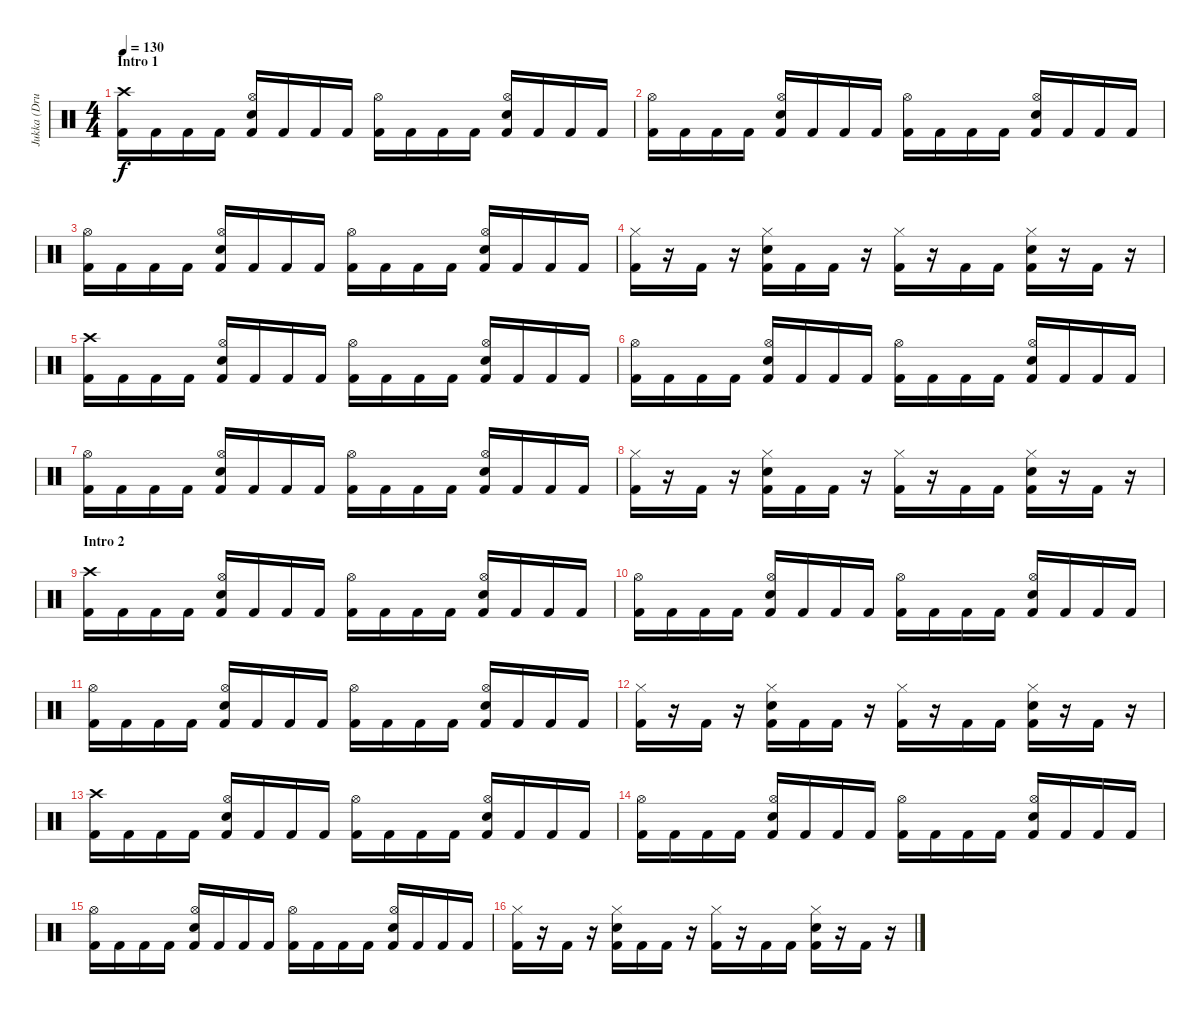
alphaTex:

\track ("Jukka (Drums)" "Jukka (Dru") {instrument percussion}
\staff {score}
\articulation defaults
\ts (4 4)
\section ("" "Intro 1")
\tempo 130
\clef neutral
\ks c
("Crash high (hit)" "Kick (hit) 2").16{dy f} "Kick (hit) 2".16 "Kick (hit) 2".16 "Kick (hit) 2".16 ("Hi-Hat (open)" "Electric Snare (hit)" "Kick (hit) 2").16 "Kick (hit) 2".16 "Kick (hit) 2".16 "Kick (hit) 2".16 ("Hi-Hat (open)" "Kick (hit) 2").16 "Kick (hit) 2".16 "Kick (hit) 2".16 "Kick (hit) 2".16 ("Hi-Hat (open)" "Electric Snare (hit)" "Kick (hit) 2").16 "Kick (hit) 2".16 "Kick (hit) 2".16 "Kick (hit) 2".16 |
("Hi-Hat (open)" "Kick (hit) 2").16 "Kick (hit) 2".16 "Kick (hit) 2".16 "Kick (hit) 2".16 ("Hi-Hat (open)" "Electric Snare (hit)" "Kick (hit) 2").16 "Kick (hit) 2".16 "Kick (hit) 2".16 "Kick (hit) 2".16 ("Hi-Hat (open)" "Kick (hit) 2").16 "Kick (hit) 2".16 "Kick (hit) 2".16 "Kick (hit) 2".16 ("Hi-Hat (open)" "Electric Snare (hit)" "Kick (hit) 2").16 "Kick (hit) 2".16 "Kick (hit) 2".16 "Kick (hit) 2".16 |
("Hi-Hat (open)" "Kick (hit) 2").16 "Kick (hit) 2".16 "Kick (hit) 2".16 "Kick (hit) 2".16 ("Hi-Hat (open)" "Electric Snare (hit)" "Kick (hit) 2").16 "Kick (hit) 2".16 "Kick (hit) 2".16 "Kick (hit) 2".16 ("Hi-Hat (open)" "Kick (hit) 2").16 "Kick (hit) 2".16 "Kick (hit) 2".16 "Kick (hit) 2".16 ("Hi-Hat (open)" "Electric Snare (hit)" "Kick (hit) 2").16 "Kick (hit) 2".16 "Kick (hit) 2".16 "Kick (hit) 2".16 |
("Hi-Hat (closed)" "Kick (hit) 2").16 r.16 "Kick (hit) 2".16 r.16 ("Hi-Hat (closed)" "Electric Snare (hit)" "Kick (hit) 2").16 "Kick (hit) 2".16 "Kick (hit) 2".16 r.16 ("Hi-Hat (closed)" "Kick (hit) 2").16 r.16 "Kick (hit) 2".16 "Kick (hit) 2".16 ("Hi-Hat (closed)" "Electric Snare (hit)" "Kick (hit) 2").16 r.16 "Kick (hit) 2".16 r.16 |
("Crash high (hit)" "Kick (hit) 2").16 "Kick (hit) 2".16 "Kick (hit) 2".16 "Kick (hit) 2".16 ("Hi-Hat (open)" "Electric Snare (hit)" "Kick (hit) 2").16 "Kick (hit) 2".16 "Kick (hit) 2".16 "Kick (hit) 2".16 ("Hi-Hat (open)" "Kick (hit) 2").16 "Kick (hit) 2".16 "Kick (hit) 2".16 "Kick (hit) 2".16 ("Hi-Hat (open)" "Electric Snare (hit)" "Kick (hit) 2").16 "Kick (hit) 2".16 "Kick (hit) 2".16 "Kick (hit) 2".16 |
("Hi-Hat (open)" "Kick (hit) 2").16 "Kick (hit) 2".16 "Kick (hit) 2".16 "Kick (hit) 2".16 ("Hi-Hat (open)" "Electric Snare (hit)" "Kick (hit) 2").16 "Kick (hit) 2".16 "Kick (hit) 2".16 "Kick (hit) 2".16 ("Hi-Hat (open)" "Kick (hit) 2").16 "Kick (hit) 2".16 "Kick (hit) 2".16 "Kick (hit) 2".16 ("Hi-Hat (open)" "Electric Snare (hit)" "Kick (hit) 2").16 "Kick (hit) 2".16 "Kick (hit) 2".16 "Kick (hit) 2".16 |
("Hi-Hat (open)" "Kick (hit) 2").16 "Kick (hit) 2".16 "Kick (hit) 2".16 "Kick (hit) 2".16 ("Hi-Hat (open)" "Electric Snare (hit)" "Kick (hit) 2").16 "Kick (hit) 2".16 "Kick (hit) 2".16 "Kick (hit) 2".16 ("Hi-Hat (open)" "Kick (hit) 2").16 "Kick (hit) 2".16 "Kick (hit) 2".16 "Kick (hit) 2".16 ("Hi-Hat (open)" "Electric Snare (hit)" "Kick (hit) 2").16 "Kick (hit) 2".16 "Kick (hit) 2".16 "Kick (hit) 2".16 |
("Hi-Hat (closed)" "Kick (hit) 2").16 r.16 "Kick (hit) 2".16 r.16 ("Hi-Hat (closed)" "Electric Snare (hit)" "Kick (hit) 2").16 "Kick (hit) 2".16 "Kick (hit) 2".16 r.16 ("Hi-Hat (closed)" "Kick (hit) 2").16 r.16 "Kick (hit) 2".16 "Kick (hit) 2".16 ("Hi-Hat (closed)" "Electric Snare (hit)" "Kick (hit) 2").16 r.16 "Kick (hit) 2".16 r.16 |
\section ("" "Intro 2")
("Crash high (hit)" "Kick (hit) 2").16 "Kick (hit) 2".16 "Kick (hit) 2".16 "Kick (hit) 2".16 ("Hi-Hat (open)" "Electric Snare (hit)" "Kick (hit) 2").16 "Kick (hit) 2".16 "Kick (hit) 2".16 "Kick (hit) 2".16 ("Hi-Hat (open)" "Kick (hit) 2").16 "Kick (hit) 2".16 "Kick (hit) 2".16 "Kick (hit) 2".16 ("Hi-Hat (open)" "Electric Snare (hit)" "Kick (hit) 2").16 "Kick (hit) 2".16 "Kick (hit) 2".16 "Kick (hit) 2".16 |
("Hi-Hat (open)" "Kick (hit) 2").16 "Kick (hit) 2".16 "Kick (hit) 2".16 "Kick (hit) 2".16 ("Hi-Hat (open)" "Electric Snare (hit)" "Kick (hit) 2").16 "Kick (hit) 2".16 "Kick (hit) 2".16 "Kick (hit) 2".16 ("Hi-Hat (open)" "Kick (hit) 2").16 "Kick (hit) 2".16 "Kick (hit) 2".16 "Kick (hit) 2".16 ("Hi-Hat (open)" "Electric Snare (hit)" "Kick (hit) 2").16 "Kick (hit) 2".16 "Kick (hit) 2".16 "Kick (hit) 2".16 |
("Hi-Hat (open)" "Kick (hit) 2").16 "Kick (hit) 2".16 "Kick (hit) 2".16 "Kick (hit) 2".16 ("Hi-Hat (open)" "Electric Snare (hit)" "Kick (hit) 2").16 "Kick (hit) 2".16 "Kick (hit) 2".16 "Kick (hit) 2".16 ("Hi-Hat (open)" "Kick (hit) 2").16 "Kick (hit) 2".16 "Kick (hit) 2".16 "Kick (hit) 2".16 ("Hi-Hat (open)" "Electric Snare (hit)" "Kick (hit) 2").16 "Kick (hit) 2".16 "Kick (hit) 2".16 "Kick (hit) 2".16 |
("Hi-Hat (closed)" "Kick (hit) 2").16 r.16 "Kick (hit) 2".16 r.16 ("Hi-Hat (closed)" "Electric Snare (hit)" "Kick (hit) 2").16 "Kick (hit) 2".16 "Kick (hit) 2".16 r.16 ("Hi-Hat (closed)" "Kick (hit) 2").16 r.16 "Kick (hit) 2".16 "Kick (hit) 2".16 ("Hi-Hat (closed)" "Electric Snare (hit)" "Kick (hit) 2").16 r.16 "Kick (hit) 2".16 r.16 |
("Crash high (hit)" "Kick (hit) 2").16 "Kick (hit) 2".16 "Kick (hit) 2".16 "Kick (hit) 2".16 ("Hi-Hat (open)" "Electric Snare (hit)" "Kick (hit) 2").16 "Kick (hit) 2".16 "Kick (hit) 2".16 "Kick (hit) 2".16 ("Hi-Hat (open)" "Kick (hit) 2").16 "Kick (hit) 2".16 "Kick (hit) 2".16 "Kick (hit) 2".16 ("Hi-Hat (open)" "Electric Snare (hit)" "Kick (hit) 2").16 "Kick (hit) 2".16 "Kick (hit) 2".16 "Kick (hit) 2".16 |
("Hi-Hat (open)" "Kick (hit) 2").16 "Kick (hit) 2".16 "Kick (hit) 2".16 "Kick (hit) 2".16 ("Hi-Hat (open)" "Electric Snare (hit)" "Kick (hit) 2").16 "Kick (hit) 2".16 "Kick (hit) 2".16 "Kick (hit) 2".16 ("Hi-Hat (open)" "Kick (hit) 2").16 "Kick (hit) 2".16 "Kick (hit) 2".16 "Kick (hit) 2".16 ("Hi-Hat (open)" "Electric Snare (hit)" "Kick (hit) 2").16 "Kick (hit) 2".16 "Kick (hit) 2".16 "Kick (hit) 2".16 |
("Hi-Hat (open)" "Kick (hit) 2").16 "Kick (hit) 2".16 "Kick (hit) 2".16 "Kick (hit) 2".16 ("Hi-Hat (open)" "Electric Snare (hit)" "Kick (hit) 2").16 "Kick (hit) 2".16 "Kick (hit) 2".16 "Kick (hit) 2".16 ("Hi-Hat (open)" "Kick (hit) 2").16 "Kick (hit) 2".16 "Kick (hit) 2".16 "Kick (hit) 2".16 ("Hi-Hat (open)" "Electric Snare (hit)" "Kick (hit) 2").16 "Kick (hit) 2".16 "Kick (hit) 2".16 "Kick (hit) 2".16 |
("Hi-Hat (closed)" "Kick (hit) 2").16 r.16 "Kick (hit) 2".16 r.16 ("Hi-Hat (closed)" "Electric Snare (hit)" "Kick (hit) 2").16 "Kick (hit) 2".16 "Kick (hit) 2".16 r.16 ("Hi-Hat (closed)" "Kick (hit) 2").16 r.16 "Kick (hit) 2".16 "Kick (hit) 2".16 ("Hi-Hat (closed)" "Electric Snare (hit)" "Kick (hit) 2").16 r.16 "Kick (hit) 2".16 r.16
